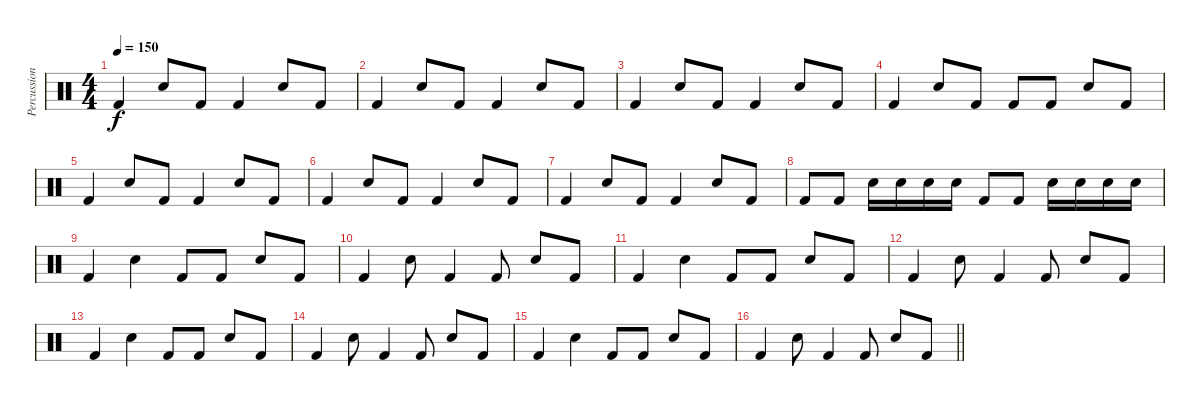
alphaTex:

\track ("Percussion" "Percussion") {instrument percussion}
\staff {score}
\articulation defaults
\ts (4 4)
\tempo 150
\clef neutral
\ks c "Kick (hit) 2".4{dy f} "Snare (hit) 2".8 "Kick (hit) 2".8 "Kick (hit) 2".4 "Snare (hit) 2".8 "Kick (hit) 2".8
|
"Kick (hit) 2".4 "Snare (hit) 2".8 "Kick (hit) 2".8 "Kick (hit) 2".4 "Snare (hit) 2".8 "Kick (hit) 2".8 |
"Kick (hit) 2".4 "Snare (hit) 2".8 "Kick (hit) 2".8 "Kick (hit) 2".4 "Snare (hit) 2".8 "Kick (hit) 2".8 |
"Kick (hit) 2".4 "Snare (hit) 2".8 "Kick (hit) 2".8 "Kick (hit) 2".8 "Kick (hit) 2".8 "Snare (hit) 2".8 "Kick (hit) 2".8 |
"Kick (hit) 2".4 "Snare (hit) 2".8 "Kick (hit) 2".8 "Kick (hit) 2".4 "Snare (hit) 2".8 "Kick (hit) 2".8 |
"Kick (hit) 2".4 "Snare (hit) 2".8 "Kick (hit) 2".8 "Kick (hit) 2".4 "Snare (hit) 2".8 "Kick (hit) 2".8 |
"Kick (hit) 2".4 "Snare (hit) 2".8 "Kick (hit) 2".8 "Kick (hit) 2".4 "Snare (hit) 2".8 "Kick (hit) 2".8 |
"Kick (hit) 2".8 "Kick (hit) 2".8 "Snare (hit) 2".16 "Snare (hit) 2".16 "Snare (hit) 2".16 "Snare (hit) 2".16 "Kick (hit) 2".8 "Kick (hit) 2".8 "Snare (hit) 2".16 "Snare (hit) 2".16 "Snare (hit) 2".16 "Snare (hit) 2".16 |
"Kick (hit) 2".4 "Snare (hit) 2".4 "Kick (hit) 2".8 "Kick (hit) 2".8 "Snare (hit) 2".8 "Kick (hit) 2".8 |
"Kick (hit) 2".4 "Snare (hit) 2".8 "Kick (hit) 2".4 "Kick (hit) 2".8 "Snare (hit) 2".8 "Kick (hit) 2".8 |
"Kick (hit) 2".4 "Snare (hit) 2".4 "Kick (hit) 2".8 "Kick (hit) 2".8 "Snare (hit) 2".8 "Kick (hit) 2".8 |
"Kick (hit) 2".4 "Snare (hit) 2".8 "Kick (hit) 2".4 "Kick (hit) 2".8 "Snare (hit) 2".8 "Kick (hit) 2".8 |
"Kick (hit) 2".4 "Snare (hit) 2".4 "Kick (hit) 2".8 "Kick (hit) 2".8 "Snare (hit) 2".8 "Kick (hit) 2".8 |
"Kick (hit) 2".4 "Snare (hit) 2".8 "Kick (hit) 2".4 "Kick (hit) 2".8 "Snare (hit) 2".8 "Kick (hit) 2".8 |
"Kick (hit) 2".4 "Snare (hit) 2".4 "Kick (hit) 2".8 "Kick (hit) 2".8 "Snare (hit) 2".8 "Kick (hit) 2".8 |
\barLineRight lightlight "Kick (hit) 2".4 "Snare (hit) 2".8 "Kick (hit) 2".4 "Kick (hit) 2".8 "Snare (hit) 2".8 "Kick (hit) 2".8
